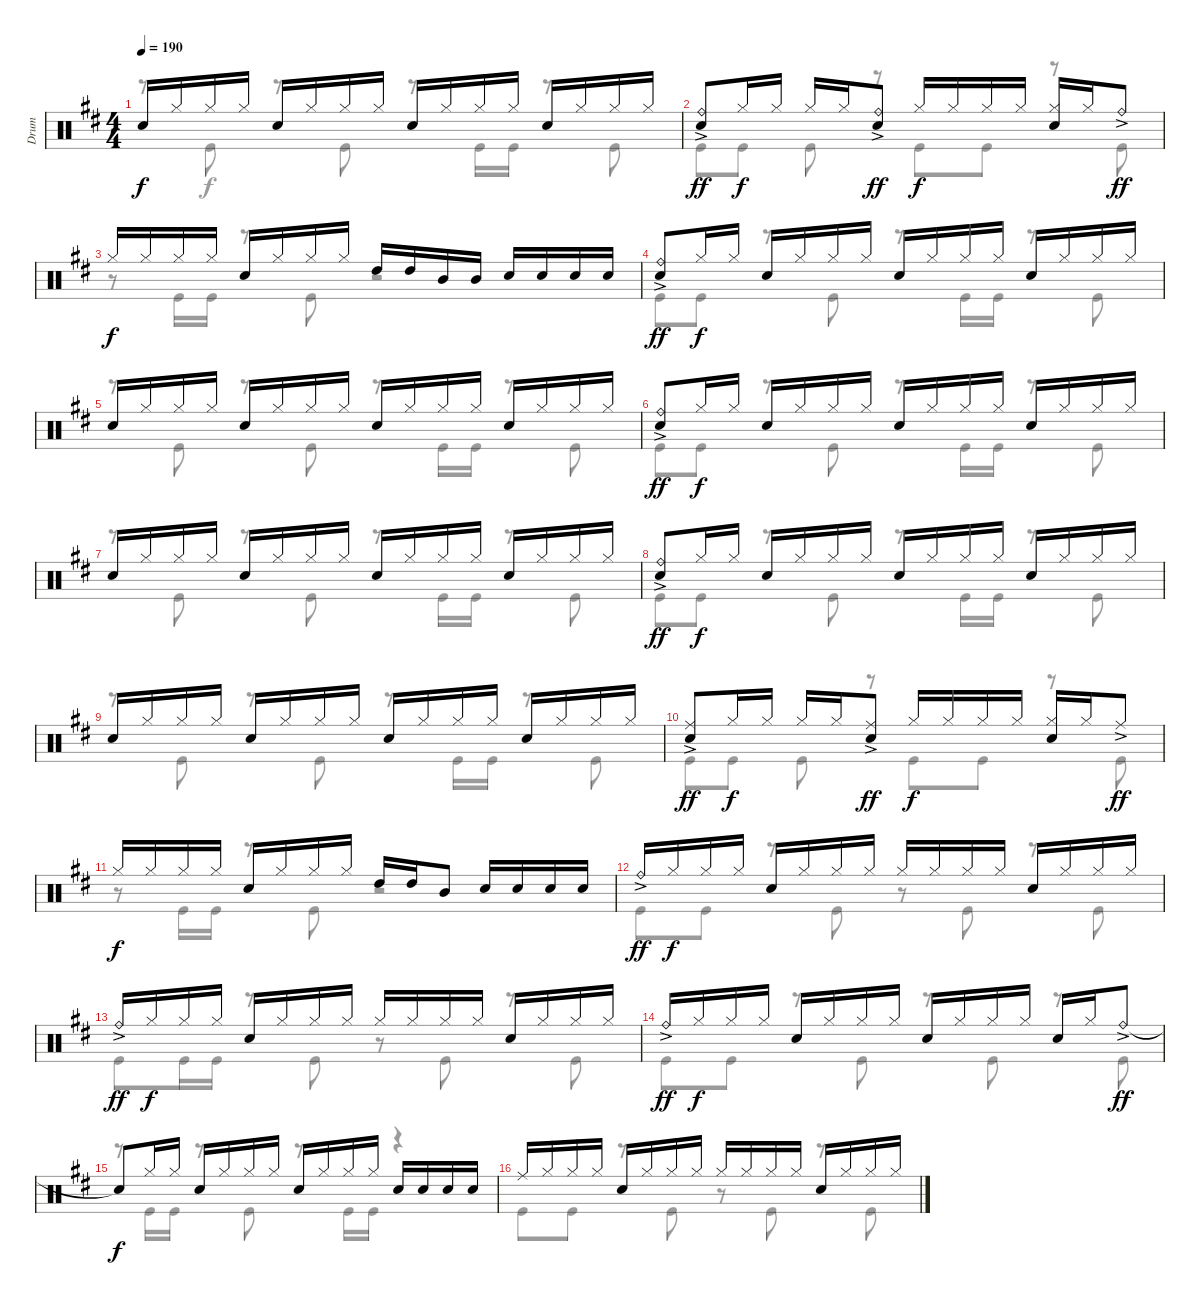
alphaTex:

\track ("Drum" "Drum") {instrument percussion}
\staff {score}
\articulation defaults
\voice
\ts (4 4)
\tempo 190
\clef neutral
\ks d "Snare (hit) 2".16{dy f} "Hi-Hat (closed)".16 "Hi-Hat (closed)".16 "Hi-Hat (closed)".16 "Snare (hit) 2".16 "Hi-Hat (closed)".16 "Hi-Hat (closed)".16 "Hi-Hat (closed)".16 "Snare (hit) 2".16 "Hi-Hat (closed)".16 "Hi-Hat (closed)".16 "Hi-Hat (closed)".16 "Snare (hit) 2".16 "Hi-Hat (closed)".16 "Hi-Hat (closed)".16 "Hi-Hat (closed)".16
|
("Ride (bell)"{ac} "Snare (hit) 2").8{dy ff} "Hi-Hat (closed)".16{dy f} "Hi-Hat (closed)".16 "Hi-Hat (closed)".16 "Hi-Hat (closed)".16 ("Ride (bell)"{ac} "Snare (hit) 2").8{dy ff} "Hi-Hat (closed)".16{dy f} "Hi-Hat (closed)".16 "Hi-Hat (closed)".16 "Hi-Hat (closed)".16 ("Hi-Hat (closed)" "Snare (hit) 2").16 "Hi-Hat (closed)".16 "Ride (bell)"{ac}.8{dy ff} |
"Hi-Hat (closed)".16{dy f} "Hi-Hat (closed)".16 "Hi-Hat (closed)".16 "Hi-Hat (closed)".16 "Snare (hit) 2".16 "Hi-Hat (closed)".16 "Hi-Hat (closed)".16 "Hi-Hat (closed)".16 "High Tom (hit)".16 "High Tom (hit)".16 "Mid Tom (hit)".16 "Mid Tom (hit)".16 "Snare (hit) 2".16 "Snare (hit) 2".16 "Snare (hit) 2".16 "Snare (hit) 2".16 |
("Ride (bell)"{ac} "Snare (hit) 2").8{dy ff} "Hi-Hat (closed)".16{dy f} "Hi-Hat (closed)".16 "Snare (hit) 2".16 "Hi-Hat (closed)".16 "Hi-Hat (closed)".16 "Hi-Hat (closed)".16 "Snare (hit) 2".16 "Hi-Hat (closed)".16 "Hi-Hat (closed)".16 "Hi-Hat (closed)".16 "Snare (hit) 2".16 "Hi-Hat (closed)".16 "Hi-Hat (closed)".16 "Hi-Hat (closed)".16 |
"Snare (hit) 2".16 "Hi-Hat (closed)".16 "Hi-Hat (closed)".16 "Hi-Hat (closed)".16 "Snare (hit) 2".16 "Hi-Hat (closed)".16 "Hi-Hat (closed)".16 "Hi-Hat (closed)".16 "Snare (hit) 2".16 "Hi-Hat (closed)".16 "Hi-Hat (closed)".16 "Hi-Hat (closed)".16 "Snare (hit) 2".16 "Hi-Hat (closed)".16 "Hi-Hat (closed)".16 "Hi-Hat (closed)".16 |
("Ride (bell)"{ac} "Snare (hit) 2").8{dy ff} "Hi-Hat (closed)".16{dy f} "Hi-Hat (closed)".16 "Snare (hit) 2".16 "Hi-Hat (closed)".16 "Hi-Hat (closed)".16 "Hi-Hat (closed)".16 "Snare (hit) 2".16 "Hi-Hat (closed)".16 "Hi-Hat (closed)".16 "Hi-Hat (closed)".16 "Snare (hit) 2".16 "Hi-Hat (closed)".16 "Hi-Hat (closed)".16 "Hi-Hat (closed)".16 |
"Snare (hit) 2".16 "Hi-Hat (closed)".16 "Hi-Hat (closed)".16 "Hi-Hat (closed)".16 "Snare (hit) 2".16 "Hi-Hat (closed)".16 "Hi-Hat (closed)".16 "Hi-Hat (closed)".16 "Snare (hit) 2".16 "Hi-Hat (closed)".16 "Hi-Hat (closed)".16 "Hi-Hat (closed)".16 "Snare (hit) 2".16 "Hi-Hat (closed)".16 "Hi-Hat (closed)".16 "Hi-Hat (closed)".16 |
("Ride (bell)"{ac} "Snare (hit) 2").8{dy ff} "Hi-Hat (closed)".16{dy f} "Hi-Hat (closed)".16 "Snare (hit) 2".16 "Hi-Hat (closed)".16 "Hi-Hat (closed)".16 "Hi-Hat (closed)".16 "Snare (hit) 2".16 "Hi-Hat (closed)".16 "Hi-Hat (closed)".16 "Hi-Hat (closed)".16 "Snare (hit) 2".16 "Hi-Hat (closed)".16 "Hi-Hat (closed)".16 "Hi-Hat (closed)".16 |
"Snare (hit) 2".16 "Hi-Hat (closed)".16 "Hi-Hat (closed)".16 "Hi-Hat (closed)".16 "Snare (hit) 2".16 "Hi-Hat (closed)".16 "Hi-Hat (closed)".16 "Hi-Hat (closed)".16 "Snare (hit) 2".16 "Hi-Hat (closed)".16 "Hi-Hat (closed)".16 "Hi-Hat (closed)".16 "Snare (hit) 2".16 "Hi-Hat (closed)".16 "Hi-Hat (closed)".16 "Hi-Hat (closed)".16 |
("Ride (middle)"{ac} "Snare (hit) 2").8{dy ff} "Hi-Hat (closed)".16{dy f} "Hi-Hat (closed)".16 "Hi-Hat (closed)".16 "Hi-Hat (closed)".16 ("Ride (middle)"{ac} "Snare (hit) 2").8{dy ff} "Hi-Hat (closed)".16{dy f} "Hi-Hat (closed)".16 "Hi-Hat (closed)".16 "Hi-Hat (closed)".16 ("Hi-Hat (closed)" "Snare (hit) 2").16 "Hi-Hat (closed)".16 "Ride (middle)"{ac}.8{dy ff} |
"Hi-Hat (closed)".16{dy f} "Hi-Hat (closed)".16 "Hi-Hat (closed)".16 "Hi-Hat (closed)".16 "Snare (hit) 2".16 "Hi-Hat (closed)".16 "Hi-Hat (closed)".16 "Hi-Hat (closed)".16 "High Tom (hit)".16 "High Tom (hit)".16 "Mid Tom (hit)".8 "Snare (hit) 2".16 "Snare (hit) 2".16 "Snare (hit) 2".16 "Snare (hit) 2".16 |
"Ride (bell)"{ac}.16{dy ff} "Hi-Hat (closed)".16{dy f} "Hi-Hat (closed)".16 "Hi-Hat (closed)".16 "Snare (hit) 2".16 "Hi-Hat (closed)".16 "Hi-Hat (closed)".16 "Hi-Hat (closed)".16 "Hi-Hat (closed)".16 "Hi-Hat (closed)".16 "Hi-Hat (closed)".16 "Hi-Hat (closed)".16 "Snare (hit) 2".16 "Hi-Hat (closed)".16 "Hi-Hat (closed)".16 "Hi-Hat (closed)".16 |
"Ride (bell)"{ac}.16{dy ff} "Hi-Hat (closed)".16{dy f} "Hi-Hat (closed)".16 "Hi-Hat (closed)".16 "Snare (hit) 2".16 "Hi-Hat (closed)".16 "Hi-Hat (closed)".16 "Hi-Hat (closed)".16 "Hi-Hat (closed)".16 "Hi-Hat (closed)".16 "Hi-Hat (closed)".16 "Hi-Hat (closed)".16 "Snare (hit) 2".16 "Hi-Hat (closed)".16 "Hi-Hat (closed)".16 "Hi-Hat (closed)".16 |
"Ride (bell)"{ac}.16{dy ff} "Hi-Hat (closed)".16{dy f} "Hi-Hat (closed)".16 "Hi-Hat (closed)".16 "Snare (hit) 2".16 "Hi-Hat (closed)".16 "Hi-Hat (closed)".16 "Hi-Hat (closed)".16 "Snare (hit) 2".16 "Hi-Hat (closed)".16 "Hi-Hat (closed)".16 "Hi-Hat (closed)".16 "Snare (hit) 2".16 "Hi-Hat (closed)".16 "Ride (bell)"{ac}.8{dy ff} |
"Snare (hit)"{t}.8{dy f} "Hi-Hat (closed)".16 "Hi-Hat (closed)".16 "Snare (hit) 2".16 "Hi-Hat (closed)".16 "Hi-Hat (closed)".16 "Hi-Hat (closed)".16 "Snare (hit) 2".16 "Hi-Hat (closed)".16 "Hi-Hat (closed)".16 "Hi-Hat (closed)".16 "Snare (hit) 2".16 "Snare (hit) 2".16 "Snare (hit) 2".16 "Snare (hit) 2".16 |
"Ride (middle)".16 "Hi-Hat (closed)".16 "Hi-Hat (closed)".16 "Hi-Hat (closed)".16 "Snare (hit) 2".16 "Hi-Hat (closed)".16 "Hi-Hat (closed)".16 "Hi-Hat (closed)".16 "Hi-Hat (closed)".16 "Hi-Hat (closed)".16 "Hi-Hat (closed)".16 "Hi-Hat (closed)".16 "Snare (hit) 2".16 "Hi-Hat (closed)".16 "Hi-Hat (closed)".16 "Hi-Hat (closed)".16
\voice
\clef neutral
\ottava regular
\simile none
\ks d
r.8{dy f} "Kick (hit)".8 r.8 "Kick (hit)".8 r.8 "Kick (hit)".16 "Kick (hit)".16 r.8 "Kick (hit)".8 |
"Kick (hit)".8 "Kick (hit)".8 "Kick (hit)".8 r.8 "Kick (hit)".8 "Kick (hit)".8 r.8 "Kick (hit)".8 |
r.8 "Kick (hit)".16 "Kick (hit)".16 r.8 "Kick (hit)".8 r.2 |
"Kick (hit)".8 "Kick (hit)".8 r.8 "Kick (hit)".8 r.8 "Kick (hit)".16 "Kick (hit)".16 r.8 "Kick (hit)".8 |
r.8 "Kick (hit)".8 r.8 "Kick (hit)".8 r.8 "Kick (hit)".16 "Kick (hit)".16 r.8 "Kick (hit)".8 |
"Kick (hit)".8 "Kick (hit)".8 r.8 "Kick (hit)".8 r.8 "Kick (hit)".16 "Kick (hit)".16 r.8 "Kick (hit)".8 |
r.8 "Kick (hit)".8 r.8 "Kick (hit)".8 r.8 "Kick (hit)".16 "Kick (hit)".16 r.8 "Kick (hit)".8 |
"Kick (hit)".8 "Kick (hit)".8 r.8 "Kick (hit)".8 r.8 "Kick (hit)".16 "Kick (hit)".16 r.8 "Kick (hit)".8 |
r.8 "Kick (hit)".8 r.8 "Kick (hit)".8 r.8 "Kick (hit)".16 "Kick (hit)".16 r.8 "Kick (hit)".8 |
"Kick (hit)".8 "Kick (hit)".8 "Kick (hit)".8 r.8 "Kick (hit)".8 "Kick (hit)".8 r.8 "Kick (hit)".8 |
r.8 "Kick (hit)".16 "Kick (hit)".16 r.8 "Kick (hit)".8 r.2 |
"Kick (hit)".8 "Kick (hit)".8 r.8 "Kick (hit)".8 r.8 "Kick (hit)".8 r.8 "Kick (hit)".8 |
"Kick (hit)".8 "Kick (hit)".16 "Kick (hit)".16 r.8 "Kick (hit)".8 r.8 "Kick (hit)".8 r.8 "Kick (hit)".8 |
"Kick (hit)".8 "Kick (hit)".8 r.8 "Kick (hit)".8 r.8 "Kick (hit)".8 r.8 "Kick (hit)".8 |
r.8 "Kick (hit)".16 "Kick (hit)".16 r.8 "Kick (hit)".8 r.8 "Kick (hit)".16 "Kick (hit)".16 r.4 |
"Kick (hit)".8 "Kick (hit)".8 r.8 "Kick (hit)".8 r.8 "Kick (hit)".8 r.8 "Kick (hit)".8
